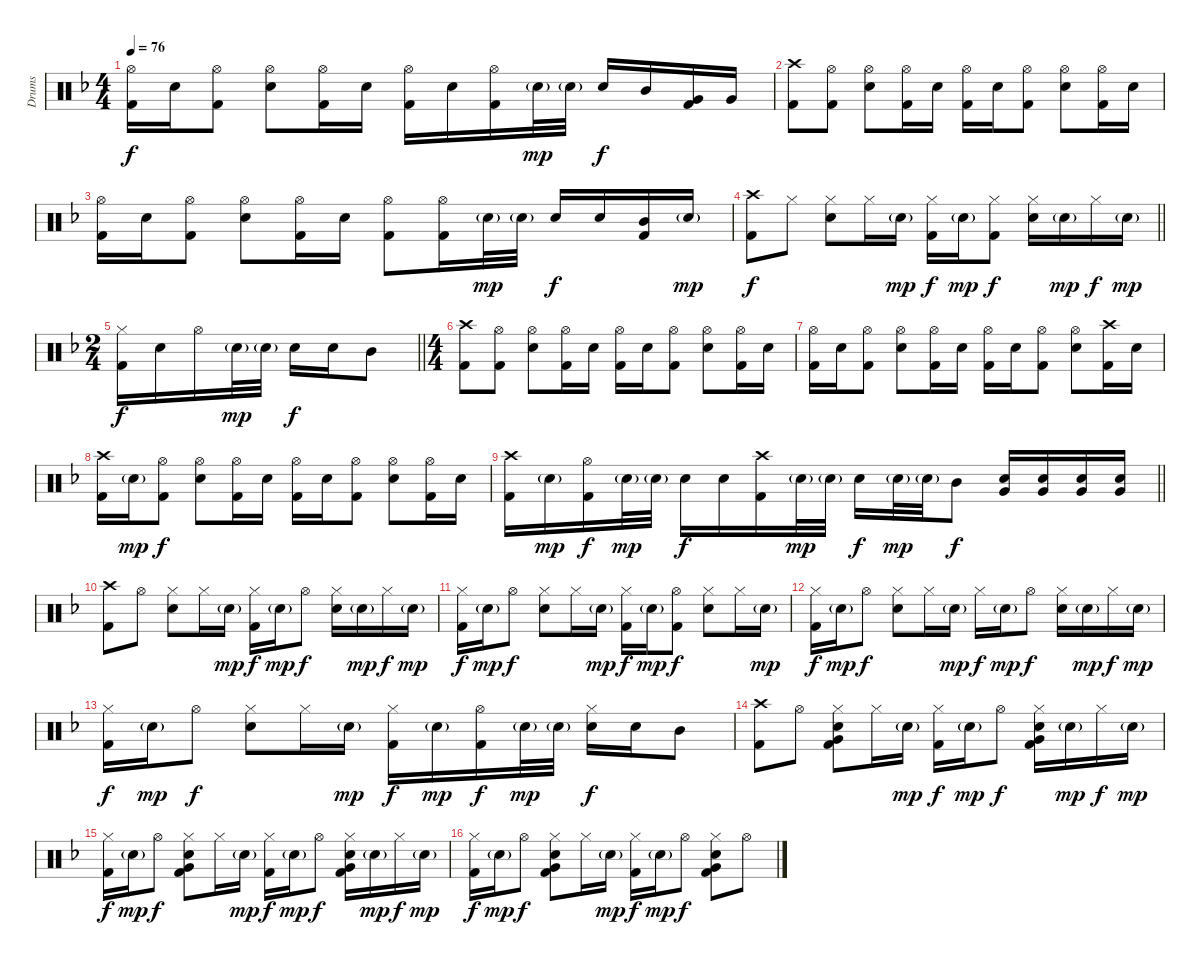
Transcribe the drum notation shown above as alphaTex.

\track ("Drums" "Drums") {instrument percussion}
\staff {score}
\articulation defaults
\ts (4 4)
\tempo 76
\clef neutral
\ks f
("Hi-Hat (open)" "Kick (hit) 2").16{dy f} "Electric Snare (hit)".16 ("Hi-Hat (open)" "Kick (hit) 2").8 ("Hi-Hat (open)" "Electric Snare (hit)").8 ("Hi-Hat (open)" "Kick (hit) 2").16 "Electric Snare (hit)".16 ("Hi-Hat (open)" "Kick (hit) 2").16 "Electric Snare (hit)".16 ("Hi-Hat (open)" "Kick (hit) 2").16 "Electric Snare (hit)"{g}.32{dy mp} "Electric Snare (hit)"{g}.32 "Electric Snare (hit)".16{dy f} "Mid Tom (hit)".16 ("Kick (hit) 2" "Very Low Tom (hit)").16 "Very Low Tom (hit)".16 |
("Crash high (hit)" "Kick (hit) 2").8 ("Hi-Hat (open)" "Kick (hit) 2").8 ("Hi-Hat (open)" "Electric Snare (hit)").8 ("Hi-Hat (open)" "Kick (hit) 2").16 "Electric Snare (hit)".16 ("Hi-Hat (open)" "Kick (hit) 2").16 "Electric Snare (hit)".16 ("Hi-Hat (open)" "Kick (hit) 2").8 ("Hi-Hat (open)" "Electric Snare (hit)").8 ("Hi-Hat (open)" "Kick (hit) 2").16 "Electric Snare (hit)".16 |
("Hi-Hat (open)" "Kick (hit) 2").16 "Electric Snare (hit)".16 ("Hi-Hat (open)" "Kick (hit) 2").8 ("Hi-Hat (open)" "Electric Snare (hit)").8 ("Hi-Hat (open)" "Kick (hit) 2").16 "Electric Snare (hit)".16 ("Hi-Hat (open)" "Kick (hit) 2").8 ("Hi-Hat (open)" "Kick (hit) 2").16 "Electric Snare (hit)"{g}.32{dy mp} "Electric Snare (hit)"{g}.32 "Electric Snare (hit)".16{dy f} "Electric Snare (hit)".16 ("Mid Tom (hit)" "Kick (hit) 2").16 "Electric Snare (hit)"{g}.16{dy mp} |
\barLineRight lightlight
("Crash high (hit)" "Kick (hit) 2").8{dy f} "Hi-Hat (closed)".8 ("Hi-Hat (closed)" "Electric Snare (hit)").8 "Hi-Hat (closed)".16 "Electric Snare (hit)"{g}.16{dy mp} ("Hi-Hat (closed)" "Kick (hit) 2").16{dy f} "Electric Snare (hit)"{g}.16{dy mp} ("Hi-Hat (closed)" "Kick (hit) 2").8{dy f} ("Hi-Hat (closed)" "Electric Snare (hit)").16 "Electric Snare (hit)"{g}.16{dy mp} "Hi-Hat (closed)".16{dy f} "Electric Snare (hit)"{g}.16{dy mp} |
\ts (2 4)
\barLineRight lightlight
("Hi-Hat (closed)" "Kick (hit) 2").16{dy f} "Electric Snare (hit)".16 "Hi-Hat (open)".16 "Electric Snare (hit)"{g}.32{dy mp} "Electric Snare (hit)"{g}.32 "Electric Snare (hit)".16{dy f} "Electric Snare (hit)".16 "Mid Tom (hit)".8 |
\ts (4 4)
("Crash high (hit)" "Kick (hit) 2").8 ("Hi-Hat (open)" "Kick (hit) 2").8 ("Hi-Hat (open)" "Electric Snare (hit)").8 ("Hi-Hat (open)" "Kick (hit) 2").16 "Electric Snare (hit)".16 ("Hi-Hat (open)" "Kick (hit) 2").16 "Electric Snare (hit)".16 ("Hi-Hat (open)" "Kick (hit) 2").8 ("Hi-Hat (open)" "Electric Snare (hit)").8 ("Hi-Hat (open)" "Kick (hit) 2").16 "Electric Snare (hit)".16 |
("Hi-Hat (open)" "Kick (hit) 2").16 "Electric Snare (hit)".16 ("Hi-Hat (open)" "Kick (hit) 2").8 ("Hi-Hat (open)" "Electric Snare (hit)").8 ("Hi-Hat (open)" "Kick (hit) 2").16 "Electric Snare (hit)".16 ("Hi-Hat (open)" "Kick (hit) 2").16 "Electric Snare (hit)".16 ("Hi-Hat (open)" "Kick (hit) 2").8 ("Hi-Hat (open)" "Electric Snare (hit)").8 ("Crash high (hit)" "Kick (hit) 2").16 "Electric Snare (hit)".16 |
("Crash high (hit)" "Kick (hit) 2").16 "Electric Snare (hit)"{g}.16{dy mp} ("Hi-Hat (open)" "Kick (hit) 2").8{dy f} ("Hi-Hat (open)" "Electric Snare (hit)").8 ("Hi-Hat (open)" "Kick (hit) 2").16 "Electric Snare (hit)".16 ("Hi-Hat (open)" "Kick (hit) 2").16 "Electric Snare (hit)".16 ("Hi-Hat (open)" "Kick (hit) 2").8 ("Hi-Hat (open)" "Electric Snare (hit)").8 ("Hi-Hat (open)" "Kick (hit) 2").16 "Electric Snare (hit)".16 |
\barLineRight lightlight
("Crash high (hit)" "Kick (hit) 2").16 "Electric Snare (hit)"{g}.16{dy mp} ("Hi-Hat (open)" "Kick (hit) 2").16{dy f} "Electric Snare (hit)"{g}.32{dy mp} "Electric Snare (hit)"{g}.32 "Electric Snare (hit)".16{dy f} "Electric Snare (hit)".16 ("Crash high (hit)" "Kick (hit) 2").16 "Electric Snare (hit)"{g}.32{dy mp} "Electric Snare (hit)"{g}.32 "Electric Snare (hit)".16{dy f} "Electric Snare (hit)"{g}.32{dy mp} "Electric Snare (hit)"{g}.32 "Mid Tom (hit)".8{dy f} ("Electric Snare (hit)" "Very Low Tom (hit)").16 ("Electric Snare (hit)" "Very Low Tom (hit)").16 ("Electric Snare (hit)" "Very Low Tom (hit)").16 ("Electric Snare (hit)" "Very Low Tom (hit)").16 |
("Crash high (hit)" "Kick (hit) 2").8 "Hi-Hat (open)".8 ("Hi-Hat (closed)" "Electric Snare (hit)").8 "Hi-Hat (closed)".16 "Electric Snare (hit)"{g}.16{dy mp} ("Hi-Hat (closed)" "Kick (hit) 2").16{dy f} "Electric Snare (hit)"{g}.16{dy mp} "Hi-Hat (open)".8{dy f} ("Hi-Hat (closed)" "Electric Snare (hit)").16 "Electric Snare (hit)"{g}.16{dy mp} "Hi-Hat (closed)".16{dy f} "Electric Snare (hit)"{g}.16{dy mp} |
("Hi-Hat (closed)" "Kick (hit) 2").16{dy f} "Electric Snare (hit)"{g}.16{dy mp} "Hi-Hat (open)".8{dy f} ("Hi-Hat (closed)" "Electric Snare (hit)").8 "Hi-Hat (closed)".16 "Electric Snare (hit)"{g}.16{dy mp} ("Hi-Hat (closed)" "Kick (hit) 2").16{dy f} "Electric Snare (hit)"{g}.16{dy mp} ("Hi-Hat (open)" "Kick (hit) 2").8{dy f} ("Hi-Hat (closed)" "Electric Snare (hit)").8 "Hi-Hat (closed)".16 "Electric Snare (hit)"{g}.16{dy mp} |
("Hi-Hat (closed)" "Kick (hit) 2").16{dy f} "Electric Snare (hit)"{g}.16{dy mp} "Hi-Hat (open)".8{dy f} ("Hi-Hat (closed)" "Electric Snare (hit)").8 "Hi-Hat (closed)".16 "Electric Snare (hit)"{g}.16{dy mp} "Hi-Hat (closed)".16{dy f} "Electric Snare (hit)"{g}.16{dy mp} "Hi-Hat (open)".8{dy f} ("Hi-Hat (closed)" "Electric Snare (hit)").16 "Electric Snare (hit)"{g}.16{dy mp} "Hi-Hat (closed)".16{dy f} "Electric Snare (hit)"{g}.16{dy mp} |
("Hi-Hat (closed)" "Kick (hit) 2").16{dy f} "Electric Snare (hit)"{g}.16{dy mp} "Hi-Hat (open)".8{dy f} ("Hi-Hat (closed)" "Electric Snare (hit)").8 "Hi-Hat (closed)".16 "Electric Snare (hit)"{g}.16{dy mp} ("Hi-Hat (closed)" "Kick (hit) 2").16{dy f} "Electric Snare (hit)"{g}.16{dy mp} ("Hi-Hat (open)" "Kick (hit) 2").16{dy f} "Electric Snare (hit)"{g}.32{dy mp} "Electric Snare (hit)"{g}.32 ("Hi-Hat (closed)" "Electric Snare (hit)").16{dy f} "Electric Snare (hit)".16 "Mid Tom (hit)".8 |
("Crash high (hit)" "Kick (hit) 2").8 "Hi-Hat (open)".8 ("Hi-Hat (closed)" "Electric Snare (hit)" "Very Low Tom (hit)" "Kick (hit) 2").8 "Hi-Hat (closed)".16 "Electric Snare (hit)"{g}.16{dy mp} ("Hi-Hat (closed)" "Kick (hit) 2").16{dy f} "Electric Snare (hit)"{g}.16{dy mp} "Hi-Hat (open)".8{dy f} ("Hi-Hat (closed)" "Electric Snare (hit)" "Very Low Tom (hit)" "Kick (hit) 2").16 "Electric Snare (hit)"{g}.16{dy mp} "Hi-Hat (closed)".16{dy f} "Electric Snare (hit)"{g}.16{dy mp} |
("Hi-Hat (closed)" "Kick (hit) 2").16{dy f} "Electric Snare (hit)"{g}.16{dy mp} "Hi-Hat (open)".8{dy f} ("Hi-Hat (closed)" "Electric Snare (hit)" "Very Low Tom (hit)" "Kick (hit) 2").8 "Hi-Hat (closed)".16 "Electric Snare (hit)"{g}.16{dy mp} ("Hi-Hat (closed)" "Kick (hit) 2").16{dy f} "Electric Snare (hit)"{g}.16{dy mp} "Hi-Hat (open)".8{dy f} ("Hi-Hat (closed)" "Electric Snare (hit)" "Very Low Tom (hit)" "Kick (hit) 2").16 "Electric Snare (hit)"{g}.16{dy mp} "Hi-Hat (closed)".16{dy f} "Electric Snare (hit)"{g}.16{dy mp} |
("Hi-Hat (closed)" "Kick (hit) 2").16{dy f} "Electric Snare (hit)"{g}.16{dy mp} "Hi-Hat (open)".8{dy f} ("Hi-Hat (closed)" "Electric Snare (hit)" "Very Low Tom (hit)" "Kick (hit) 2").8 "Hi-Hat (closed)".16 "Electric Snare (hit)"{g}.16{dy mp} ("Hi-Hat (closed)" "Kick (hit) 2").16{dy f} "Electric Snare (hit)"{g}.16{dy mp} "Hi-Hat (open)".8{dy f} ("Hi-Hat (closed)" "Electric Snare (hit)" "Very Low Tom (hit)" "Kick (hit) 2").8 "Hi-Hat (open)".8
